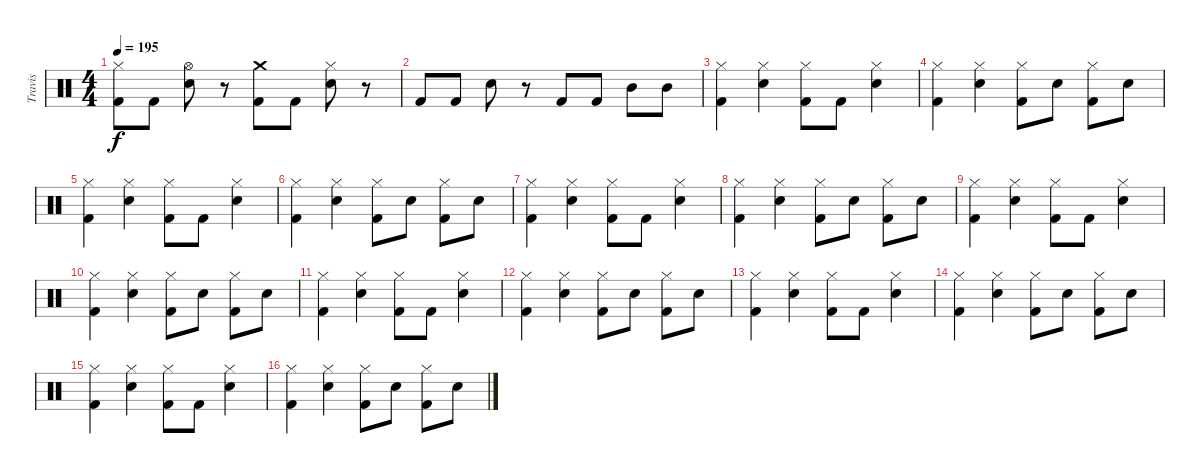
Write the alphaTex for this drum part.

\track ("Travis" "Travis") {instrument percussion}
\staff {score}
\articulation defaults
\ts (4 4)
\tempo 195
\clef neutral
\ks c
("Kick (hit) 2" "Hi-Hat (closed)").8{dy f} "Kick (hit) 2".8 ("Electric Snare (hit)" "Hi-Hat (open)").8 r.8 ("Kick (hit) 2" "Crash medium (hit)").8 "Kick (hit) 2".8 ("Electric Snare (hit)" "Hi-Hat (closed)").8 r.8 |
"Kick (hit) 2".8 "Kick (hit) 2".8 "Electric Snare (hit)".8 r.8 "Kick (hit) 2".8 "Kick (hit) 2".8 "Mid Tom (hit)".8 "Mid Tom (hit)".8 |
("Kick (hit) 2" "Hi-Hat (closed)").4 ("Electric Snare (hit)" "Hi-Hat (closed)").4 ("Kick (hit) 2" "Hi-Hat (closed)").8 "Kick (hit) 2".8 ("Electric Snare (hit)" "Hi-Hat (closed)").4 |
("Kick (hit) 2" "Hi-Hat (closed)").4 ("Electric Snare (hit)" "Hi-Hat (closed)").4 ("Kick (hit) 2" "Hi-Hat (closed)").8 "Electric Snare (hit)".8 ("Kick (hit) 2" "Hi-Hat (closed)").8 "Electric Snare (hit)".8 |
("Kick (hit) 2" "Hi-Hat (closed)").4 ("Electric Snare (hit)" "Hi-Hat (closed)").4 ("Kick (hit) 2" "Hi-Hat (closed)").8 "Kick (hit) 2".8 ("Electric Snare (hit)" "Hi-Hat (closed)").4 |
("Kick (hit) 2" "Hi-Hat (closed)").4 ("Electric Snare (hit)" "Hi-Hat (closed)").4 ("Kick (hit) 2" "Hi-Hat (closed)").8 "Electric Snare (hit)".8 ("Kick (hit) 2" "Hi-Hat (closed)").8 "Electric Snare (hit)".8 |
("Kick (hit) 2" "Hi-Hat (closed)").4 ("Electric Snare (hit)" "Hi-Hat (closed)").4 ("Kick (hit) 2" "Hi-Hat (closed)").8 "Kick (hit) 2".8 ("Electric Snare (hit)" "Hi-Hat (closed)").4 |
("Kick (hit) 2" "Hi-Hat (closed)").4 ("Electric Snare (hit)" "Hi-Hat (closed)").4 ("Kick (hit) 2" "Hi-Hat (closed)").8 "Electric Snare (hit)".8 ("Kick (hit) 2" "Hi-Hat (closed)").8 "Electric Snare (hit)".8 |
("Kick (hit) 2" "Hi-Hat (closed)").4 ("Electric Snare (hit)" "Hi-Hat (closed)").4 ("Kick (hit) 2" "Hi-Hat (closed)").8 "Kick (hit) 2".8 ("Electric Snare (hit)" "Hi-Hat (closed)").4 |
("Kick (hit) 2" "Hi-Hat (closed)").4 ("Electric Snare (hit)" "Hi-Hat (closed)").4 ("Kick (hit) 2" "Hi-Hat (closed)").8 "Electric Snare (hit)".8 ("Kick (hit) 2" "Hi-Hat (closed)").8 "Electric Snare (hit)".8 |
("Kick (hit) 2" "Hi-Hat (closed)").4 ("Electric Snare (hit)" "Hi-Hat (closed)").4 ("Kick (hit) 2" "Hi-Hat (closed)").8 "Kick (hit) 2".8 ("Electric Snare (hit)" "Hi-Hat (closed)").4 |
("Kick (hit) 2" "Hi-Hat (closed)").4 ("Electric Snare (hit)" "Hi-Hat (closed)").4 ("Kick (hit) 2" "Hi-Hat (closed)").8 "Electric Snare (hit)".8 ("Kick (hit) 2" "Hi-Hat (closed)").8 "Electric Snare (hit)".8 |
("Kick (hit) 2" "Hi-Hat (closed)").4 ("Electric Snare (hit)" "Hi-Hat (closed)").4 ("Kick (hit) 2" "Hi-Hat (closed)").8 "Kick (hit) 2".8 ("Electric Snare (hit)" "Hi-Hat (closed)").4 |
("Kick (hit) 2" "Hi-Hat (closed)").4 ("Electric Snare (hit)" "Hi-Hat (closed)").4 ("Kick (hit) 2" "Hi-Hat (closed)").8 "Electric Snare (hit)".8 ("Kick (hit) 2" "Hi-Hat (closed)").8 "Electric Snare (hit)".8 |
("Kick (hit) 2" "Hi-Hat (closed)").4 ("Electric Snare (hit)" "Hi-Hat (closed)").4 ("Kick (hit) 2" "Hi-Hat (closed)").8 "Kick (hit) 2".8 ("Electric Snare (hit)" "Hi-Hat (closed)").4 |
("Kick (hit) 2" "Hi-Hat (closed)").4 ("Electric Snare (hit)" "Hi-Hat (closed)").4 ("Kick (hit) 2" "Hi-Hat (closed)").8 "Electric Snare (hit)".8 ("Kick (hit) 2" "Hi-Hat (closed)").8 "Electric Snare (hit)".8
